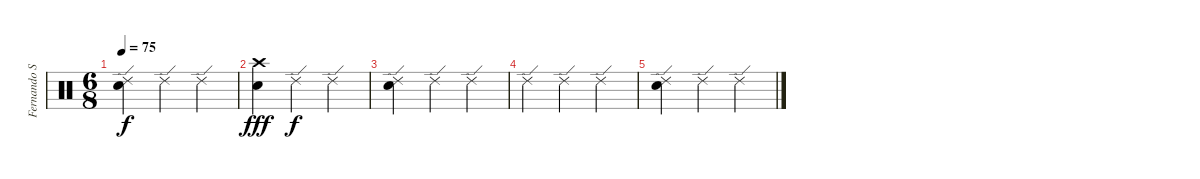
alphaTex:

\track ("Fernando Scarcella " "Fernando S") {instrument percussion}
\staff {score}
\articulation defaults
\ts (6 8)
\tempo 75
\clef neutral
\ks c
("Electric Snare (hit)" "Ride (edge) 2").4{dy f} "Ride (edge) 2".4 "Ride (edge) 2".4 |
("Snare (hit) 2" "Crash high (hit)").4{dy fff} "Ride (edge) 2".4{dy f} "Ride (edge) 2".4 |
("Electric Snare (hit)" "Ride (edge) 2").4 "Ride (edge) 2".4 "Ride (edge) 2".4 |
"Ride (edge) 2".4 "Ride (edge) 2".4 "Ride (edge) 2".4 |
("Electric Snare (hit)" "Ride (edge) 2").4 "Ride (edge) 2".4 "Ride (edge) 2".4
